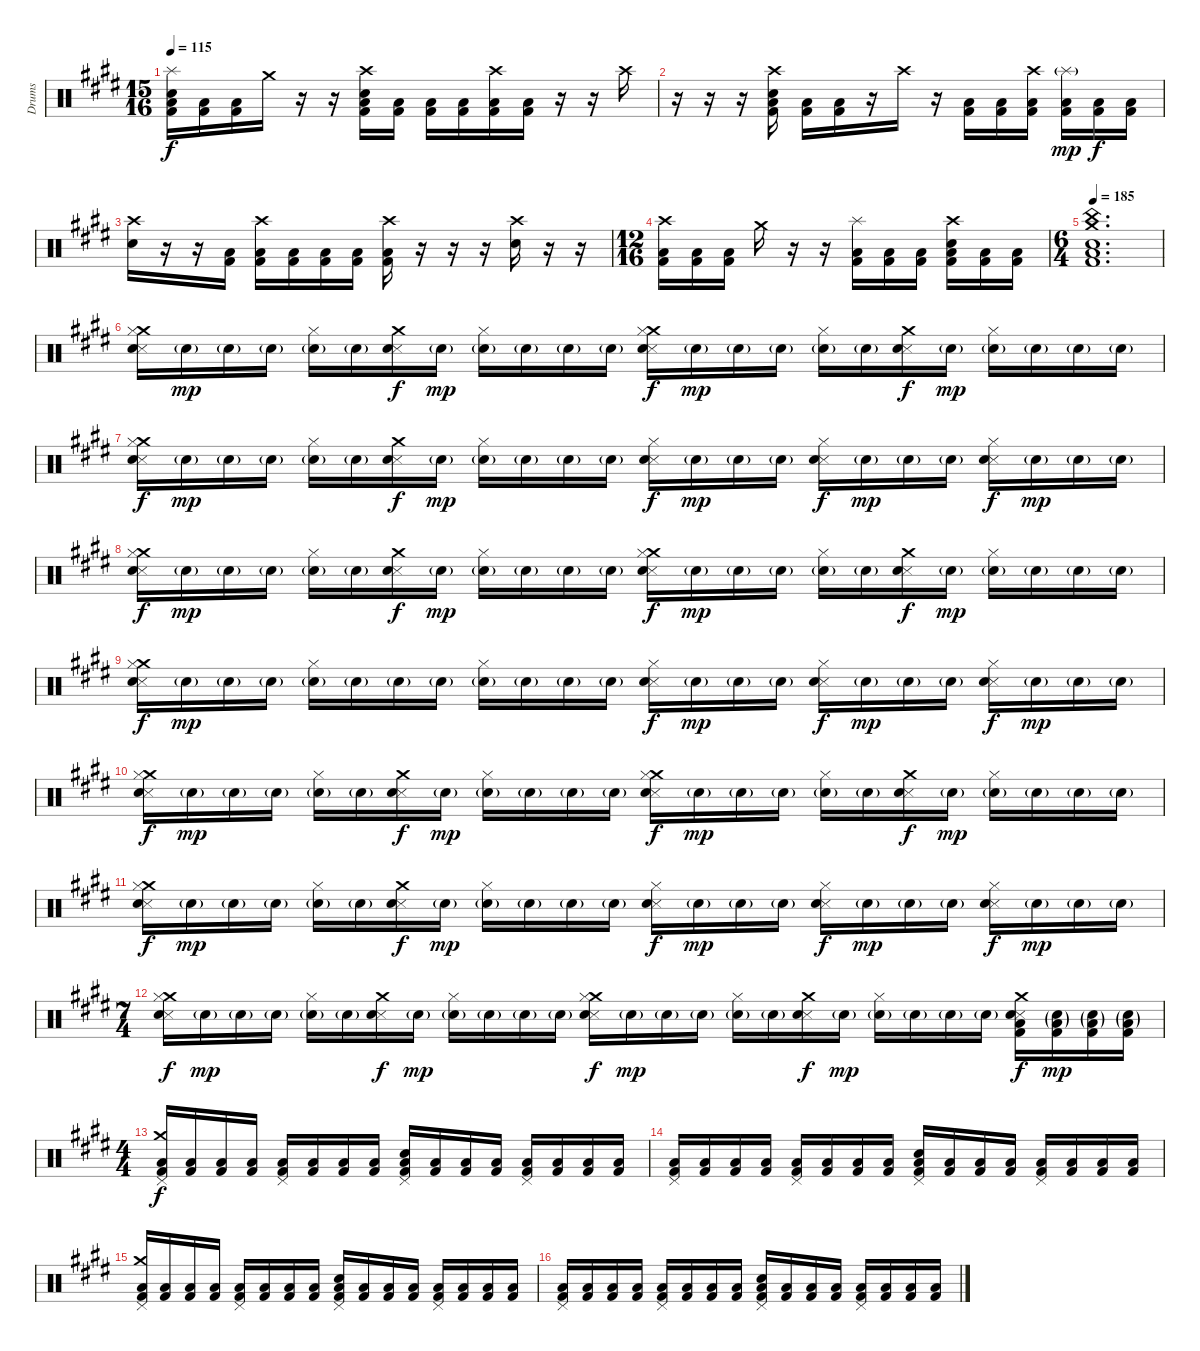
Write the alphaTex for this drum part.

\track ("Drums" "Drums") {instrument percussion}
\staff {score}
\articulation defaults
\ts (15 16)
\tempo 115
\clef neutral
\ks e
("Splash (hit)" "Snare (hit) 2" "Low Floor Tom (hit)" "Kick (hit) 2").16{dy f} ("Low Floor Tom (hit)" "Kick (hit) 2").16 ("Low Floor Tom (hit)" "Kick (hit) 2").16 "Crash medium (hit)".16 r.16 r.16 ("Crash high (hit)" "Snare (hit) 2" "Low Floor Tom (hit)" "Kick (hit) 2").16 ("Low Floor Tom (hit)" "Kick (hit) 2").16 ("Low Floor Tom (hit)" "Kick (hit) 2").16 ("Low Floor Tom (hit)" "Kick (hit) 2").16 ("Crash high (hit)" "Low Floor Tom (hit)" "Kick (hit) 2").16 ("Low Floor Tom (hit)" "Kick (hit) 2").16 r.16 r.16 "Crash high (hit)".16 |
r.16 r.16 r.16 ("Crash high (hit)" "Snare (hit) 2" "Low Floor Tom (hit)" "Kick (hit) 2").16 ("Low Floor Tom (hit)" "Kick (hit) 2").16 ("Low Floor Tom (hit)" "Kick (hit) 2").16 r.16 "Crash high (hit)".16 r.16 ("Low Floor Tom (hit)" "Kick (hit) 2").16 ("Low Floor Tom (hit)" "Kick (hit) 2").16 ("Crash high (hit)" "Low Floor Tom (hit)" "Kick (hit) 2").16 ("Splash (hit)"{g} "Low Floor Tom (hit)" "Kick (hit) 2").16{dy mp} ("Low Floor Tom (hit)" "Kick (hit) 2").16{dy f} ("Low Floor Tom (hit)" "Kick (hit) 2").16 |
("Crash high (hit)" "Snare (hit) 2").16 r.16 r.16 ("Low Floor Tom (hit)" "Kick (hit) 2").16 ("Crash high (hit)" "Low Floor Tom (hit)" "Kick (hit) 2").16 ("Low Floor Tom (hit)" "Kick (hit) 2").16 ("Low Floor Tom (hit)" "Kick (hit) 2").16 ("Low Floor Tom (hit)" "Kick (hit) 2").16 ("Crash high (hit)" "Low Floor Tom (hit)" "Kick (hit) 2").16 r.16 r.16 r.16 ("Crash high (hit)" "Snare (hit) 2").16 r.16 r.16 |
\ts (12 16)
("Crash high (hit)" "Low Floor Tom (hit)" "Kick (hit) 2").16 ("Low Floor Tom (hit)" "Kick (hit) 2").16 ("Low Floor Tom (hit)" "Kick (hit) 2").16 "Crash medium (hit)".16 r.16 r.16 ("Splash (hit)" "Low Floor Tom (hit)" "Kick (hit) 2").16 ("Low Floor Tom (hit)" "Kick (hit) 2").16 ("Low Floor Tom (hit)" "Kick (hit) 2").16 ("Crash high (hit)" "Snare (hit) 2" "Low Floor Tom (hit)" "Kick (hit) 2").16 ("Low Floor Tom (hit)" "Kick (hit) 2").16 ("Low Floor Tom (hit)" "Kick (hit) 2").16 |
\ts (6 4)
\tempo 185
("China (hit)" "Crash medium (hit)" "Snare (hit) 2" "Low Floor Tom (hit)" "Kick (hit) 2").1{d} |
("Crash medium (hit)" "Hi-Hat (closed)" "Snare (side stick) 3" "Electric Snare (hit)").16 "Electric Snare (hit)"{g}.16{dy mp} "Electric Snare (hit)"{g}.16 "Electric Snare (hit)"{g}.16 ("Hi-Hat (closed)" "Electric Snare (hit)"{g}).16 "Electric Snare (hit)"{g}.16 ("Crash medium (hit)" "Snare (side stick) 3" "Electric Snare (hit)").16{dy f} "Electric Snare (hit)"{g}.16{dy mp} ("Hi-Hat (closed)" "Electric Snare (hit)"{g}).16 "Electric Snare (hit)"{g}.16 "Electric Snare (hit)"{g}.16 "Electric Snare (hit)"{g}.16 ("Crash medium (hit)" "Hi-Hat (closed)" "Snare (side stick) 3" "Electric Snare (hit)").16{dy f} "Electric Snare (hit)"{g}.16{dy mp} "Electric Snare (hit)"{g}.16 "Electric Snare (hit)"{g}.16 ("Hi-Hat (closed)" "Electric Snare (hit)"{g}).16 "Electric Snare (hit)"{g}.16 ("Crash medium (hit)" "Snare (side stick) 3" "Electric Snare (hit)").16{dy f} "Electric Snare (hit)"{g}.16{dy mp} ("Hi-Hat (closed)" "Electric Snare (hit)"{g}).16 "Electric Snare (hit)"{g}.16 "Electric Snare (hit)"{g}.16 "Electric Snare (hit)"{g}.16 |
("Crash medium (hit)" "Snare (side stick) 3" "Hi-Hat (closed)" "Electric Snare (hit)").16{dy f} "Electric Snare (hit)"{g}.16{dy mp} "Electric Snare (hit)"{g}.16 "Electric Snare (hit)"{g}.16 ("Hi-Hat (closed)" "Electric Snare (hit)"{g}).16 "Electric Snare (hit)"{g}.16 ("Crash medium (hit)" "Snare (side stick) 3" "Electric Snare (hit)").16{dy f} "Electric Snare (hit)"{g}.16{dy mp} ("Hi-Hat (closed)" "Electric Snare (hit)"{g}).16 "Electric Snare (hit)"{g}.16 "Electric Snare (hit)"{g}.16 "Electric Snare (hit)"{g}.16 ("Snare (side stick) 3" "Hi-Hat (closed)" "Electric Snare (hit)").16{dy f} "Electric Snare (hit)"{g}.16{dy mp} "Electric Snare (hit)"{g}.16 "Electric Snare (hit)"{g}.16 ("Snare (side stick) 3" "Hi-Hat (closed)" "Electric Snare (hit)").16{dy f} "Electric Snare (hit)"{g}.16{dy mp} "Electric Snare (hit)"{g}.16 "Electric Snare (hit)"{g}.16 ("Snare (side stick) 3" "Hi-Hat (closed)" "Electric Snare (hit)").16{dy f} "Electric Snare (hit)"{g}.16{dy mp} "Electric Snare (hit)"{g}.16 "Electric Snare (hit)"{g}.16 |
("Crash medium (hit)" "Hi-Hat (closed)" "Snare (side stick) 3" "Electric Snare (hit)").16{dy f} "Electric Snare (hit)"{g}.16{dy mp} "Electric Snare (hit)"{g}.16 "Electric Snare (hit)"{g}.16 ("Hi-Hat (closed)" "Electric Snare (hit)"{g}).16 "Electric Snare (hit)"{g}.16 ("Crash medium (hit)" "Snare (side stick) 3" "Electric Snare (hit)").16{dy f} "Electric Snare (hit)"{g}.16{dy mp} ("Hi-Hat (closed)" "Electric Snare (hit)"{g}).16 "Electric Snare (hit)"{g}.16 "Electric Snare (hit)"{g}.16 "Electric Snare (hit)"{g}.16 ("Crash medium (hit)" "Hi-Hat (closed)" "Snare (side stick) 3" "Electric Snare (hit)").16{dy f} "Electric Snare (hit)"{g}.16{dy mp} "Electric Snare (hit)"{g}.16 "Electric Snare (hit)"{g}.16 ("Hi-Hat (closed)" "Electric Snare (hit)"{g}).16 "Electric Snare (hit)"{g}.16 ("Crash medium (hit)" "Snare (side stick) 3" "Electric Snare (hit)").16{dy f} "Electric Snare (hit)"{g}.16{dy mp} ("Hi-Hat (closed)" "Electric Snare (hit)"{g}).16 "Electric Snare (hit)"{g}.16 "Electric Snare (hit)"{g}.16 "Electric Snare (hit)"{g}.16 |
("Crash medium (hit)" "Snare (side stick) 3" "Hi-Hat (closed)" "Electric Snare (hit)").16{dy f} "Electric Snare (hit)"{g}.16{dy mp} "Electric Snare (hit)"{g}.16 "Electric Snare (hit)"{g}.16 ("Hi-Hat (closed)" "Electric Snare (hit)"{g}).16 "Electric Snare (hit)"{g}.16 "Electric Snare (hit)"{g}.16 "Electric Snare (hit)"{g}.16 ("Hi-Hat (closed)" "Electric Snare (hit)"{g}).16 "Electric Snare (hit)"{g}.16 "Electric Snare (hit)"{g}.16 "Electric Snare (hit)"{g}.16 ("Snare (side stick) 3" "Hi-Hat (closed)" "Electric Snare (hit)").16{dy f} "Electric Snare (hit)"{g}.16{dy mp} "Electric Snare (hit)"{g}.16 "Electric Snare (hit)"{g}.16 ("Snare (side stick) 3" "Hi-Hat (closed)" "Electric Snare (hit)").16{dy f} "Electric Snare (hit)"{g}.16{dy mp} "Electric Snare (hit)"{g}.16 "Electric Snare (hit)"{g}.16 ("Snare (side stick) 3" "Hi-Hat (closed)" "Electric Snare (hit)").16{dy f} "Electric Snare (hit)"{g}.16{dy mp} "Electric Snare (hit)"{g}.16 "Electric Snare (hit)"{g}.16 |
("Crash medium (hit)" "Hi-Hat (closed)" "Snare (side stick) 3" "Electric Snare (hit)").16{dy f} "Electric Snare (hit)"{g}.16{dy mp} "Electric Snare (hit)"{g}.16 "Electric Snare (hit)"{g}.16 ("Hi-Hat (closed)" "Electric Snare (hit)"{g}).16 "Electric Snare (hit)"{g}.16 ("Crash medium (hit)" "Snare (side stick) 3" "Electric Snare (hit)").16{dy f} "Electric Snare (hit)"{g}.16{dy mp} ("Hi-Hat (closed)" "Electric Snare (hit)"{g}).16 "Electric Snare (hit)"{g}.16 "Electric Snare (hit)"{g}.16 "Electric Snare (hit)"{g}.16 ("Crash medium (hit)" "Hi-Hat (closed)" "Snare (side stick) 3" "Electric Snare (hit)").16{dy f} "Electric Snare (hit)"{g}.16{dy mp} "Electric Snare (hit)"{g}.16 "Electric Snare (hit)"{g}.16 ("Hi-Hat (closed)" "Electric Snare (hit)"{g}).16 "Electric Snare (hit)"{g}.16 ("Crash medium (hit)" "Snare (side stick) 3" "Electric Snare (hit)").16{dy f} "Electric Snare (hit)"{g}.16{dy mp} ("Hi-Hat (closed)" "Electric Snare (hit)"{g}).16 "Electric Snare (hit)"{g}.16 "Electric Snare (hit)"{g}.16 "Electric Snare (hit)"{g}.16 |
("Crash medium (hit)" "Snare (side stick) 3" "Hi-Hat (closed)" "Electric Snare (hit)").16{dy f} "Electric Snare (hit)"{g}.16{dy mp} "Electric Snare (hit)"{g}.16 "Electric Snare (hit)"{g}.16 ("Hi-Hat (closed)" "Electric Snare (hit)"{g}).16 "Electric Snare (hit)"{g}.16 ("Crash medium (hit)" "Snare (side stick) 3" "Electric Snare (hit)").16{dy f} "Electric Snare (hit)"{g}.16{dy mp} ("Hi-Hat (closed)" "Electric Snare (hit)"{g}).16 "Electric Snare (hit)"{g}.16 "Electric Snare (hit)"{g}.16 "Electric Snare (hit)"{g}.16 ("Snare (side stick) 3" "Hi-Hat (closed)" "Electric Snare (hit)").16{dy f} "Electric Snare (hit)"{g}.16{dy mp} "Electric Snare (hit)"{g}.16 "Electric Snare (hit)"{g}.16 ("Snare (side stick) 3" "Hi-Hat (closed)" "Electric Snare (hit)").16{dy f} "Electric Snare (hit)"{g}.16{dy mp} "Electric Snare (hit)"{g}.16 "Electric Snare (hit)"{g}.16 ("Snare (side stick) 3" "Hi-Hat (closed)" "Electric Snare (hit)").16{dy f} "Electric Snare (hit)"{g}.16{dy mp} "Electric Snare (hit)"{g}.16 "Electric Snare (hit)"{g}.16 |
\ts (7 4)
("Crash medium (hit)" "Hi-Hat (closed)" "Snare (side stick) 3" "Electric Snare (hit)").16{dy f} "Electric Snare (hit)"{g}.16{dy mp} "Electric Snare (hit)"{g}.16 "Electric Snare (hit)"{g}.16 ("Hi-Hat (closed)" "Electric Snare (hit)"{g}).16 "Electric Snare (hit)"{g}.16 ("Crash medium (hit)" "Snare (side stick) 3" "Electric Snare (hit)").16{dy f} "Electric Snare (hit)"{g}.16{dy mp} ("Hi-Hat (closed)" "Electric Snare (hit)"{g}).16 "Electric Snare (hit)"{g}.16 "Electric Snare (hit)"{g}.16 "Electric Snare (hit)"{g}.16 ("Crash medium (hit)" "Hi-Hat (closed)" "Snare (side stick) 3" "Electric Snare (hit)").16{dy f} "Electric Snare (hit)"{g}.16{dy mp} "Electric Snare (hit)"{g}.16 "Electric Snare (hit)"{g}.16 ("Hi-Hat (closed)" "Electric Snare (hit)"{g}).16 "Electric Snare (hit)"{g}.16 ("Crash medium (hit)" "Snare (side stick) 3" "Electric Snare (hit)").16{dy f} "Electric Snare (hit)"{g}.16{dy mp} ("Hi-Hat (closed)" "Electric Snare (hit)"{g}).16 "Electric Snare (hit)"{g}.16 "Electric Snare (hit)"{g}.16 "Electric Snare (hit)"{g}.16 ("Kick (hit) 2" "Crash medium (hit)" "Snare (side stick) 3" "Low Floor Tom (hit)" "Electric Snare (hit)").16{dy f} ("Kick (hit) 2" "Low Floor Tom (hit)"{g} "Electric Snare (hit)"{g}).16{dy mp} ("Kick (hit) 2" "Low Floor Tom (hit)"{g} "Electric Snare (hit)"{g}).16 ("Kick (hit) 2" "Low Floor Tom (hit)"{g} "Electric Snare (hit)"{g}).16 |
\ts (4 4)
("Crash medium (hit)" "Pedal Hi-Hat (hit)" "Low Floor Tom (hit)" "Kick (hit) 2").16{dy f} ("Low Floor Tom (hit)" "Kick (hit) 2").16 ("Low Floor Tom (hit)" "Kick (hit) 2").16 ("Low Floor Tom (hit)" "Kick (hit) 2").16 ("Pedal Hi-Hat (hit)" "Low Floor Tom (hit)" "Kick (hit) 2").16 ("Low Floor Tom (hit)" "Kick (hit) 2").16 ("Low Floor Tom (hit)" "Kick (hit) 2").16 ("Low Floor Tom (hit)" "Kick (hit) 2").16 ("Electric Snare (hit)" "Pedal Hi-Hat (hit)" "Low Floor Tom (hit)" "Kick (hit) 2").16 ("Low Floor Tom (hit)" "Kick (hit) 2").16 ("Low Floor Tom (hit)" "Kick (hit) 2").16 ("Low Floor Tom (hit)" "Kick (hit) 2").16 ("Pedal Hi-Hat (hit)" "Low Floor Tom (hit)" "Kick (hit) 2").16 ("Low Floor Tom (hit)" "Kick (hit) 2").16 ("Low Floor Tom (hit)" "Kick (hit) 2").16 ("Low Floor Tom (hit)" "Kick (hit) 2").16 |
("Pedal Hi-Hat (hit)" "Low Floor Tom (hit)" "Kick (hit) 2").16 ("Low Floor Tom (hit)" "Kick (hit) 2").16 ("Low Floor Tom (hit)" "Kick (hit) 2").16 ("Low Floor Tom (hit)" "Kick (hit) 2").16 ("Pedal Hi-Hat (hit)" "Low Floor Tom (hit)" "Kick (hit) 2").16 ("Low Floor Tom (hit)" "Kick (hit) 2").16 ("Low Floor Tom (hit)" "Kick (hit) 2").16 ("Low Floor Tom (hit)" "Kick (hit) 2").16 ("Electric Snare (hit)" "Pedal Hi-Hat (hit)" "Low Floor Tom (hit)" "Kick (hit) 2").16 ("Low Floor Tom (hit)" "Kick (hit) 2").16 ("Low Floor Tom (hit)" "Kick (hit) 2").16 ("Low Floor Tom (hit)" "Kick (hit) 2").16 ("Pedal Hi-Hat (hit)" "Low Floor Tom (hit)" "Kick (hit) 2").16 ("Low Floor Tom (hit)" "Kick (hit) 2").16 ("Low Floor Tom (hit)" "Kick (hit) 2").16 ("Low Floor Tom (hit)" "Kick (hit) 2").16 |
("Crash medium (hit)" "Pedal Hi-Hat (hit)" "Low Floor Tom (hit)" "Kick (hit) 2").16 ("Low Floor Tom (hit)" "Kick (hit) 2").16 ("Low Floor Tom (hit)" "Kick (hit) 2").16 ("Low Floor Tom (hit)" "Kick (hit) 2").16 ("Pedal Hi-Hat (hit)" "Low Floor Tom (hit)" "Kick (hit) 2").16 ("Low Floor Tom (hit)" "Kick (hit) 2").16 ("Low Floor Tom (hit)" "Kick (hit) 2").16 ("Low Floor Tom (hit)" "Kick (hit) 2").16 ("Electric Snare (hit)" "Pedal Hi-Hat (hit)" "Low Floor Tom (hit)" "Kick (hit) 2").16 ("Low Floor Tom (hit)" "Kick (hit) 2").16 ("Low Floor Tom (hit)" "Kick (hit) 2").16 ("Low Floor Tom (hit)" "Kick (hit) 2").16 ("Pedal Hi-Hat (hit)" "Low Floor Tom (hit)" "Kick (hit) 2").16 ("Low Floor Tom (hit)" "Kick (hit) 2").16 ("Low Floor Tom (hit)" "Kick (hit) 2").16 ("Low Floor Tom (hit)" "Kick (hit) 2").16 |
("Pedal Hi-Hat (hit)" "Low Floor Tom (hit)" "Kick (hit) 2").16 ("Low Floor Tom (hit)" "Kick (hit) 2").16 ("Low Floor Tom (hit)" "Kick (hit) 2").16 ("Low Floor Tom (hit)" "Kick (hit) 2").16 ("Pedal Hi-Hat (hit)" "Low Floor Tom (hit)" "Kick (hit) 2").16 ("Low Floor Tom (hit)" "Kick (hit) 2").16 ("Low Floor Tom (hit)" "Kick (hit) 2").16 ("Low Floor Tom (hit)" "Kick (hit) 2").16 ("Electric Snare (hit)" "Pedal Hi-Hat (hit)" "Low Floor Tom (hit)" "Kick (hit) 2").16 ("Low Floor Tom (hit)" "Kick (hit) 2").16 ("Low Floor Tom (hit)" "Kick (hit) 2").16 ("Low Floor Tom (hit)" "Kick (hit) 2").16 ("Pedal Hi-Hat (hit)" "Low Floor Tom (hit)" "Kick (hit) 2").16 ("Low Floor Tom (hit)" "Kick (hit) 2").16 ("Low Floor Tom (hit)" "Kick (hit) 2").16 ("Low Floor Tom (hit)" "Kick (hit) 2").16
